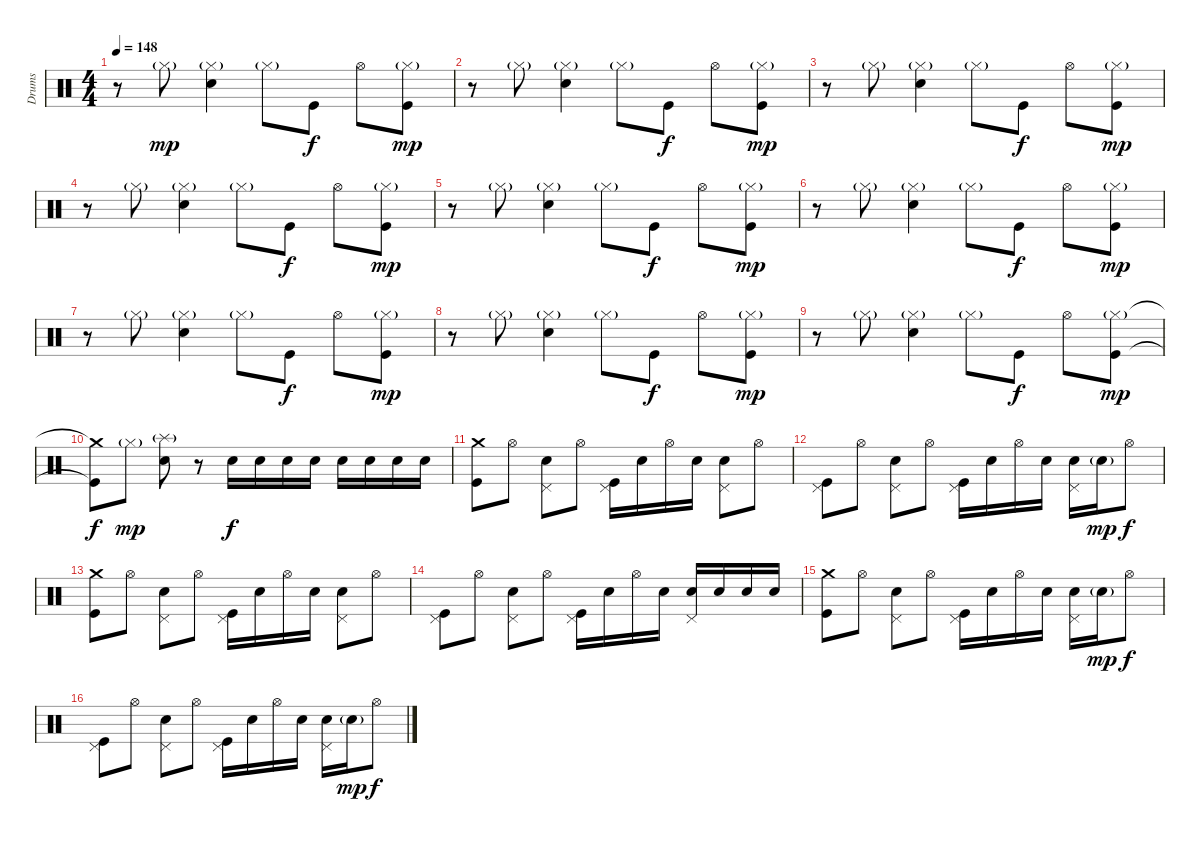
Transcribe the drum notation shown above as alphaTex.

\track ("Drums" "Drums") {instrument percussion}
\staff {score}
\articulation defaults
\ts (4 4)
\tempo 148
\clef neutral
\ks c
r.8{dy mp} "Hi-Hat (closed)"{g}.8 ("Hi-Hat (closed)"{g} "Electric Snare (hit)").4 "Hi-Hat (closed)"{g}.8 "Kick (hit)".8{dy f} "Hi-Hat (open)".8 ("Hi-Hat (closed)"{g} "Kick (hit)").8{dy mp} |
r.8 "Hi-Hat (closed)"{g}.8 ("Hi-Hat (closed)"{g} "Electric Snare (hit)").4 "Hi-Hat (closed)"{g}.8 "Kick (hit)".8{dy f} "Hi-Hat (open)".8 ("Hi-Hat (closed)"{g} "Kick (hit)").8{dy mp} |
r.8 "Hi-Hat (closed)"{g}.8 ("Hi-Hat (closed)"{g} "Electric Snare (hit)").4 "Hi-Hat (closed)"{g}.8 "Kick (hit)".8{dy f} "Hi-Hat (open)".8 ("Hi-Hat (closed)"{g} "Kick (hit)").8{dy mp} |
r.8 "Hi-Hat (closed)"{g}.8 ("Hi-Hat (closed)"{g} "Electric Snare (hit)").4 "Hi-Hat (closed)"{g}.8 "Kick (hit)".8{dy f} "Hi-Hat (open)".8 ("Hi-Hat (closed)"{g} "Kick (hit)").8{dy mp} |
r.8 "Hi-Hat (closed)"{g}.8 ("Hi-Hat (closed)"{g} "Electric Snare (hit)").4 "Hi-Hat (closed)"{g}.8 "Kick (hit)".8{dy f} "Hi-Hat (open)".8 ("Hi-Hat (closed)"{g} "Kick (hit)").8{dy mp} |
r.8 "Hi-Hat (closed)"{g}.8 ("Hi-Hat (closed)"{g} "Electric Snare (hit)").4 "Hi-Hat (closed)"{g}.8 "Kick (hit)".8{dy f} "Hi-Hat (open)".8 ("Hi-Hat (closed)"{g} "Kick (hit)").8{dy mp} |
r.8 "Hi-Hat (closed)"{g}.8 ("Hi-Hat (closed)"{g} "Electric Snare (hit)").4 "Hi-Hat (closed)"{g}.8 "Kick (hit)".8{dy f} "Hi-Hat (open)".8 ("Hi-Hat (closed)"{g} "Kick (hit)").8{dy mp} |
r.8 "Hi-Hat (closed)"{g}.8 ("Hi-Hat (closed)"{g} "Electric Snare (hit)").4 "Hi-Hat (closed)"{g}.8 "Kick (hit)".8{dy f} "Hi-Hat (open)".8 ("Hi-Hat (closed)"{g} "Kick (hit)").8{dy mp} |
r.8 "Hi-Hat (closed)"{g}.8 ("Hi-Hat (closed)"{g} "Electric Snare (hit)").4 "Hi-Hat (closed)"{g}.8 "Kick (hit)".8{dy f} "Hi-Hat (open)".8 ("Hi-Hat (closed)"{g} "Kick (hit)").8{dy mp} |
("Crash medium (hit)"{t} "Kick (hit)"{t}).8{dy f} "Hi-Hat (closed)"{g}.8{dy mp} ("Splash (hit)"{g} "Electric Snare (hit)").8 r.8 "Electric Snare (hit)".16{dy f} "Electric Snare (hit)".16 "Electric Snare (hit)".16 "Electric Snare (hit)".16 "Electric Snare (hit)".16 "Electric Snare (hit)".16 "Electric Snare (hit)".16 "Electric Snare (hit)".16 |
("Crash medium (hit)" "Kick (hit)").8 "Hi-Hat (open)".8 ("Pedal Hi-Hat (hit)" "Electric Snare (hit)").8 "Hi-Hat (open)".8 ("Pedal Hi-Hat (hit)" "Kick (hit)").16 "Electric Snare (hit)".16 "Hi-Hat (open)".16 "Electric Snare (hit)".16 ("Pedal Hi-Hat (hit)" "Electric Snare (hit)").8 "Hi-Hat (open)".8 |
("Pedal Hi-Hat (hit)" "Kick (hit)").8 "Hi-Hat (open)".8 ("Pedal Hi-Hat (hit)" "Electric Snare (hit)").8 "Hi-Hat (open)".8 ("Pedal Hi-Hat (hit)" "Kick (hit)").16 "Electric Snare (hit)".16 "Hi-Hat (open)".16 "Electric Snare (hit)".16 ("Pedal Hi-Hat (hit)" "Electric Snare (hit)").16 "Electric Snare (hit)"{g}.16{dy mp} "Hi-Hat (open)".8{dy f} |
("Crash medium (hit)" "Kick (hit)").8 "Hi-Hat (open)".8 ("Pedal Hi-Hat (hit)" "Electric Snare (hit)").8 "Hi-Hat (open)".8 ("Pedal Hi-Hat (hit)" "Kick (hit)").16 "Electric Snare (hit)".16 "Hi-Hat (open)".16 "Electric Snare (hit)".16 ("Pedal Hi-Hat (hit)" "Electric Snare (hit)").8 "Hi-Hat (open)".8 |
("Pedal Hi-Hat (hit)" "Kick (hit)").8 "Hi-Hat (open)".8 ("Pedal Hi-Hat (hit)" "Electric Snare (hit)").8 "Hi-Hat (open)".8 ("Pedal Hi-Hat (hit)" "Kick (hit)").16 "Electric Snare (hit)".16 "Hi-Hat (open)".16 "Electric Snare (hit)".16 ("Pedal Hi-Hat (hit)" "Electric Snare (hit)").16 "Electric Snare (hit)".16 "Electric Snare (hit)".16 "Electric Snare (hit)".16 |
("Crash medium (hit)" "Kick (hit)").8 "Hi-Hat (open)".8 ("Pedal Hi-Hat (hit)" "Electric Snare (hit)").8 "Hi-Hat (open)".8 ("Pedal Hi-Hat (hit)" "Kick (hit)").16 "Electric Snare (hit)".16 "Hi-Hat (open)".16 "Electric Snare (hit)".16 ("Pedal Hi-Hat (hit)" "Electric Snare (hit)").16 "Electric Snare (hit)"{g}.16{dy mp} "Hi-Hat (open)".8{dy f} |
("Pedal Hi-Hat (hit)" "Kick (hit)").8 "Hi-Hat (open)".8 ("Pedal Hi-Hat (hit)" "Electric Snare (hit)").8 "Hi-Hat (open)".8 ("Pedal Hi-Hat (hit)" "Kick (hit)").16 "Electric Snare (hit)".16 "Hi-Hat (open)".16 "Electric Snare (hit)".16 ("Pedal Hi-Hat (hit)" "Electric Snare (hit)").16 "Electric Snare (hit)"{g}.16{dy mp} "Hi-Hat (open)".8{dy f}
